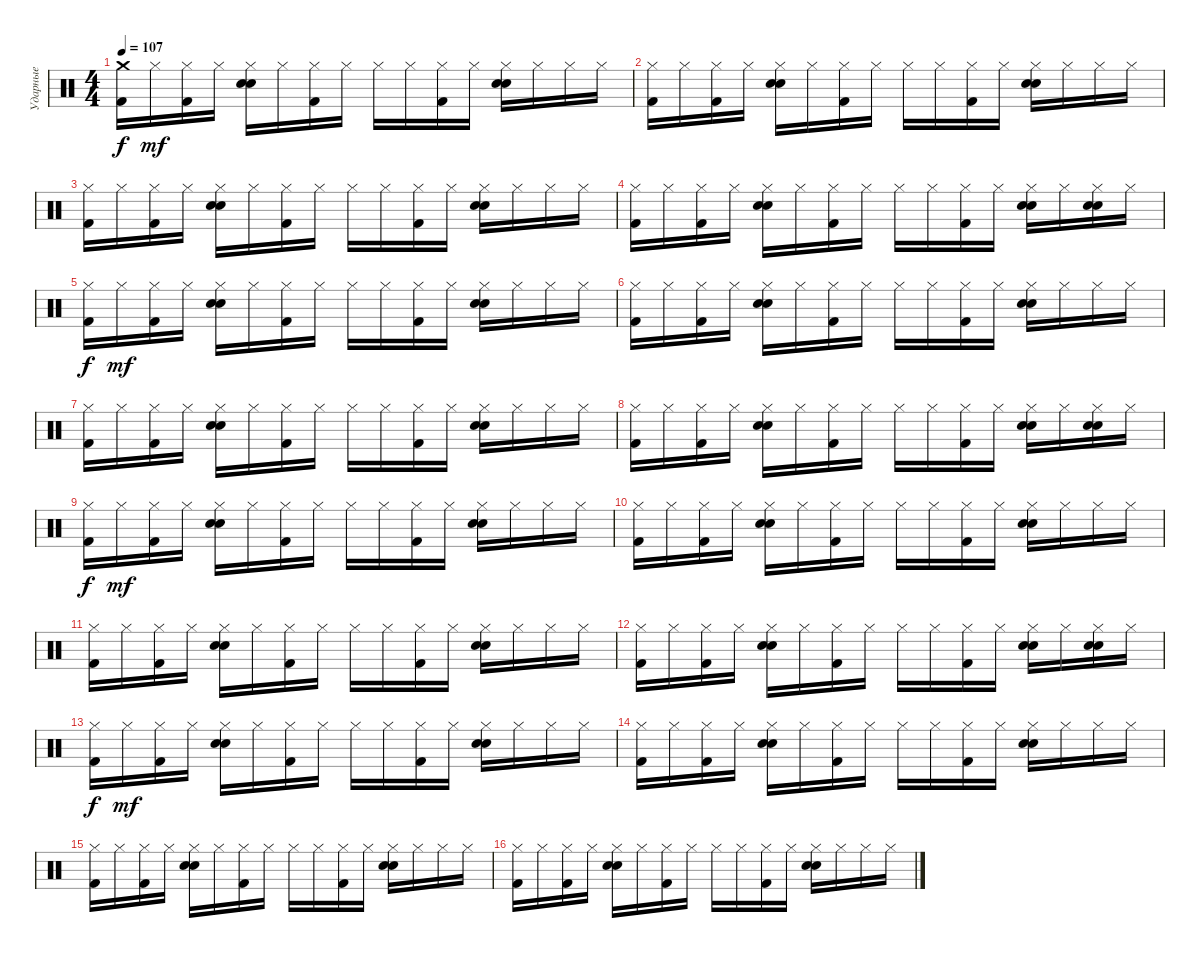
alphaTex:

\track ("Ударные" "Ударные") {instrument percussion}
\staff {score}
\articulation defaults
\ts (4 4)
\tempo 107
\clef neutral
\ks c
("Kick (hit) 2" "Crash medium (hit)").16{dy f} "Hi-Hat (closed)".16{dy mf} ("Kick (hit) 2" "Hi-Hat (closed)").16 "Hi-Hat (closed)".16 ("Snare (hit) 2" "Hand Clap (hit)" "Hi-Hat (closed)").16 "Hi-Hat (closed)".16 ("Kick (hit) 2" "Hi-Hat (closed)").16 "Hi-Hat (closed)".16 "Hi-Hat (closed)".16 "Hi-Hat (closed)".16 ("Kick (hit) 2" "Hi-Hat (closed)").16 "Hi-Hat (closed)".16 ("Snare (hit) 2" "Hand Clap (hit)" "Hi-Hat (closed)").16 "Hi-Hat (closed)".16 "Hi-Hat (closed)".16 "Hi-Hat (closed)".16 |
("Kick (hit) 2" "Hi-Hat (closed)").16 "Hi-Hat (closed)".16 ("Kick (hit) 2" "Hi-Hat (closed)").16 "Hi-Hat (closed)".16 ("Snare (hit) 2" "Hand Clap (hit)" "Hi-Hat (closed)").16 "Hi-Hat (closed)".16 ("Kick (hit) 2" "Hi-Hat (closed)").16 "Hi-Hat (closed)".16 "Hi-Hat (closed)".16 "Hi-Hat (closed)".16 ("Kick (hit) 2" "Hi-Hat (closed)").16 "Hi-Hat (closed)".16 ("Snare (hit) 2" "Hand Clap (hit)" "Hi-Hat (closed)").16 "Hi-Hat (closed)".16 "Hi-Hat (closed)".16 "Hi-Hat (closed)".16 |
("Kick (hit) 2" "Hi-Hat (closed)").16 "Hi-Hat (closed)".16 ("Kick (hit) 2" "Hi-Hat (closed)").16 "Hi-Hat (closed)".16 ("Snare (hit) 2" "Hand Clap (hit)" "Hi-Hat (closed)").16 "Hi-Hat (closed)".16 ("Kick (hit) 2" "Hi-Hat (closed)").16 "Hi-Hat (closed)".16 "Hi-Hat (closed)".16 "Hi-Hat (closed)".16 ("Kick (hit) 2" "Hi-Hat (closed)").16 "Hi-Hat (closed)".16 ("Snare (hit) 2" "Hand Clap (hit)" "Hi-Hat (closed)").16 "Hi-Hat (closed)".16 "Hi-Hat (closed)".16 "Hi-Hat (closed)".16 |
("Kick (hit) 2" "Hi-Hat (closed)").16 "Hi-Hat (closed)".16 ("Kick (hit) 2" "Hi-Hat (closed)").16 "Hi-Hat (closed)".16 ("Snare (hit) 2" "Hand Clap (hit)" "Hi-Hat (closed)").16 "Hi-Hat (closed)".16 ("Kick (hit) 2" "Hi-Hat (closed)").16 "Hi-Hat (closed)".16 "Hi-Hat (closed)".16 "Hi-Hat (closed)".16 ("Kick (hit) 2" "Hi-Hat (closed)").16 "Hi-Hat (closed)".16 ("Snare (hit) 2" "Hand Clap (hit)" "Hi-Hat (closed)").16 "Hi-Hat (closed)".16 ("Snare (hit) 2" "Hand Clap (hit)" "Hi-Hat (closed)").16 "Hi-Hat (closed)".16 |
("Kick (hit) 2" "Hi-Hat (closed)").16{dy f} "Hi-Hat (closed)".16{dy mf} ("Kick (hit) 2" "Hi-Hat (closed)").16 "Hi-Hat (closed)".16 ("Snare (hit) 2" "Hand Clap (hit)" "Hi-Hat (closed)").16 "Hi-Hat (closed)".16 ("Kick (hit) 2" "Hi-Hat (closed)").16 "Hi-Hat (closed)".16 "Hi-Hat (closed)".16 "Hi-Hat (closed)".16 ("Kick (hit) 2" "Hi-Hat (closed)").16 "Hi-Hat (closed)".16 ("Snare (hit) 2" "Hand Clap (hit)" "Hi-Hat (closed)").16 "Hi-Hat (closed)".16 "Hi-Hat (closed)".16 "Hi-Hat (closed)".16 |
("Kick (hit) 2" "Hi-Hat (closed)").16 "Hi-Hat (closed)".16 ("Kick (hit) 2" "Hi-Hat (closed)").16 "Hi-Hat (closed)".16 ("Snare (hit) 2" "Hand Clap (hit)" "Hi-Hat (closed)").16 "Hi-Hat (closed)".16 ("Kick (hit) 2" "Hi-Hat (closed)").16 "Hi-Hat (closed)".16 "Hi-Hat (closed)".16 "Hi-Hat (closed)".16 ("Kick (hit) 2" "Hi-Hat (closed)").16 "Hi-Hat (closed)".16 ("Snare (hit) 2" "Hand Clap (hit)" "Hi-Hat (closed)").16 "Hi-Hat (closed)".16 "Hi-Hat (closed)".16 "Hi-Hat (closed)".16 |
("Kick (hit) 2" "Hi-Hat (closed)").16 "Hi-Hat (closed)".16 ("Kick (hit) 2" "Hi-Hat (closed)").16 "Hi-Hat (closed)".16 ("Snare (hit) 2" "Hand Clap (hit)" "Hi-Hat (closed)").16 "Hi-Hat (closed)".16 ("Kick (hit) 2" "Hi-Hat (closed)").16 "Hi-Hat (closed)".16 "Hi-Hat (closed)".16 "Hi-Hat (closed)".16 ("Kick (hit) 2" "Hi-Hat (closed)").16 "Hi-Hat (closed)".16 ("Snare (hit) 2" "Hand Clap (hit)" "Hi-Hat (closed)").16 "Hi-Hat (closed)".16 "Hi-Hat (closed)".16 "Hi-Hat (closed)".16 |
("Kick (hit) 2" "Hi-Hat (closed)").16 "Hi-Hat (closed)".16 ("Kick (hit) 2" "Hi-Hat (closed)").16 "Hi-Hat (closed)".16 ("Snare (hit) 2" "Hand Clap (hit)" "Hi-Hat (closed)").16 "Hi-Hat (closed)".16 ("Kick (hit) 2" "Hi-Hat (closed)").16 "Hi-Hat (closed)".16 "Hi-Hat (closed)".16 "Hi-Hat (closed)".16 ("Kick (hit) 2" "Hi-Hat (closed)").16 "Hi-Hat (closed)".16 ("Snare (hit) 2" "Hand Clap (hit)" "Hi-Hat (closed)").16 "Hi-Hat (closed)".16 ("Snare (hit) 2" "Hand Clap (hit)" "Hi-Hat (closed)").16 "Hi-Hat (closed)".16 |
("Kick (hit) 2" "Hi-Hat (closed)").16{dy f} "Hi-Hat (closed)".16{dy mf} ("Kick (hit) 2" "Hi-Hat (closed)").16 "Hi-Hat (closed)".16 ("Snare (hit) 2" "Hand Clap (hit)" "Hi-Hat (closed)").16 "Hi-Hat (closed)".16 ("Kick (hit) 2" "Hi-Hat (closed)").16 "Hi-Hat (closed)".16 "Hi-Hat (closed)".16 "Hi-Hat (closed)".16 ("Kick (hit) 2" "Hi-Hat (closed)").16 "Hi-Hat (closed)".16 ("Snare (hit) 2" "Hand Clap (hit)" "Hi-Hat (closed)").16 "Hi-Hat (closed)".16 "Hi-Hat (closed)".16 "Hi-Hat (closed)".16 |
("Kick (hit) 2" "Hi-Hat (closed)").16 "Hi-Hat (closed)".16 ("Kick (hit) 2" "Hi-Hat (closed)").16 "Hi-Hat (closed)".16 ("Snare (hit) 2" "Hand Clap (hit)" "Hi-Hat (closed)").16 "Hi-Hat (closed)".16 ("Kick (hit) 2" "Hi-Hat (closed)").16 "Hi-Hat (closed)".16 "Hi-Hat (closed)".16 "Hi-Hat (closed)".16 ("Kick (hit) 2" "Hi-Hat (closed)").16 "Hi-Hat (closed)".16 ("Snare (hit) 2" "Hand Clap (hit)" "Hi-Hat (closed)").16 "Hi-Hat (closed)".16 "Hi-Hat (closed)".16 "Hi-Hat (closed)".16 |
("Kick (hit) 2" "Hi-Hat (closed)").16 "Hi-Hat (closed)".16 ("Kick (hit) 2" "Hi-Hat (closed)").16 "Hi-Hat (closed)".16 ("Snare (hit) 2" "Hand Clap (hit)" "Hi-Hat (closed)").16 "Hi-Hat (closed)".16 ("Kick (hit) 2" "Hi-Hat (closed)").16 "Hi-Hat (closed)".16 "Hi-Hat (closed)".16 "Hi-Hat (closed)".16 ("Kick (hit) 2" "Hi-Hat (closed)").16 "Hi-Hat (closed)".16 ("Snare (hit) 2" "Hand Clap (hit)" "Hi-Hat (closed)").16 "Hi-Hat (closed)".16 "Hi-Hat (closed)".16 "Hi-Hat (closed)".16 |
("Kick (hit) 2" "Hi-Hat (closed)").16 "Hi-Hat (closed)".16 ("Kick (hit) 2" "Hi-Hat (closed)").16 "Hi-Hat (closed)".16 ("Snare (hit) 2" "Hand Clap (hit)" "Hi-Hat (closed)").16 "Hi-Hat (closed)".16 ("Kick (hit) 2" "Hi-Hat (closed)").16 "Hi-Hat (closed)".16 "Hi-Hat (closed)".16 "Hi-Hat (closed)".16 ("Kick (hit) 2" "Hi-Hat (closed)").16 "Hi-Hat (closed)".16 ("Snare (hit) 2" "Hand Clap (hit)" "Hi-Hat (closed)").16 "Hi-Hat (closed)".16 ("Snare (hit) 2" "Hand Clap (hit)" "Hi-Hat (closed)").16 "Hi-Hat (closed)".16 |
("Kick (hit) 2" "Hi-Hat (closed)").16{dy f} "Hi-Hat (closed)".16{dy mf} ("Kick (hit) 2" "Hi-Hat (closed)").16 "Hi-Hat (closed)".16 ("Snare (hit) 2" "Hand Clap (hit)" "Hi-Hat (closed)").16 "Hi-Hat (closed)".16 ("Kick (hit) 2" "Hi-Hat (closed)").16 "Hi-Hat (closed)".16 "Hi-Hat (closed)".16 "Hi-Hat (closed)".16 ("Kick (hit) 2" "Hi-Hat (closed)").16 "Hi-Hat (closed)".16 ("Snare (hit) 2" "Hand Clap (hit)" "Hi-Hat (closed)").16 "Hi-Hat (closed)".16 "Hi-Hat (closed)".16 "Hi-Hat (closed)".16 |
("Kick (hit) 2" "Hi-Hat (closed)").16 "Hi-Hat (closed)".16 ("Kick (hit) 2" "Hi-Hat (closed)").16 "Hi-Hat (closed)".16 ("Snare (hit) 2" "Hand Clap (hit)" "Hi-Hat (closed)").16 "Hi-Hat (closed)".16 ("Kick (hit) 2" "Hi-Hat (closed)").16 "Hi-Hat (closed)".16 "Hi-Hat (closed)".16 "Hi-Hat (closed)".16 ("Kick (hit) 2" "Hi-Hat (closed)").16 "Hi-Hat (closed)".16 ("Snare (hit) 2" "Hand Clap (hit)" "Hi-Hat (closed)").16 "Hi-Hat (closed)".16 "Hi-Hat (closed)".16 "Hi-Hat (closed)".16 |
("Kick (hit) 2" "Hi-Hat (closed)").16 "Hi-Hat (closed)".16 ("Kick (hit) 2" "Hi-Hat (closed)").16 "Hi-Hat (closed)".16 ("Snare (hit) 2" "Hand Clap (hit)" "Hi-Hat (closed)").16 "Hi-Hat (closed)".16 ("Kick (hit) 2" "Hi-Hat (closed)").16 "Hi-Hat (closed)".16 "Hi-Hat (closed)".16 "Hi-Hat (closed)".16 ("Kick (hit) 2" "Hi-Hat (closed)").16 "Hi-Hat (closed)".16 ("Snare (hit) 2" "Hand Clap (hit)" "Hi-Hat (closed)").16 "Hi-Hat (closed)".16 "Hi-Hat (closed)".16 "Hi-Hat (closed)".16 |
("Kick (hit) 2" "Hi-Hat (closed)").16 "Hi-Hat (closed)".16 ("Kick (hit) 2" "Hi-Hat (closed)").16 "Hi-Hat (closed)".16 ("Snare (hit) 2" "Hand Clap (hit)" "Hi-Hat (closed)").16 "Hi-Hat (closed)".16 ("Kick (hit) 2" "Hi-Hat (closed)").16 "Hi-Hat (closed)".16 "Hi-Hat (closed)".16 "Hi-Hat (closed)".16 ("Kick (hit) 2" "Hi-Hat (closed)").16 "Hi-Hat (closed)".16 ("Snare (hit) 2" "Hand Clap (hit)" "Hi-Hat (closed)").16 "Hi-Hat (closed)".16 "Hi-Hat (closed)".16 "Hi-Hat (closed)".16
